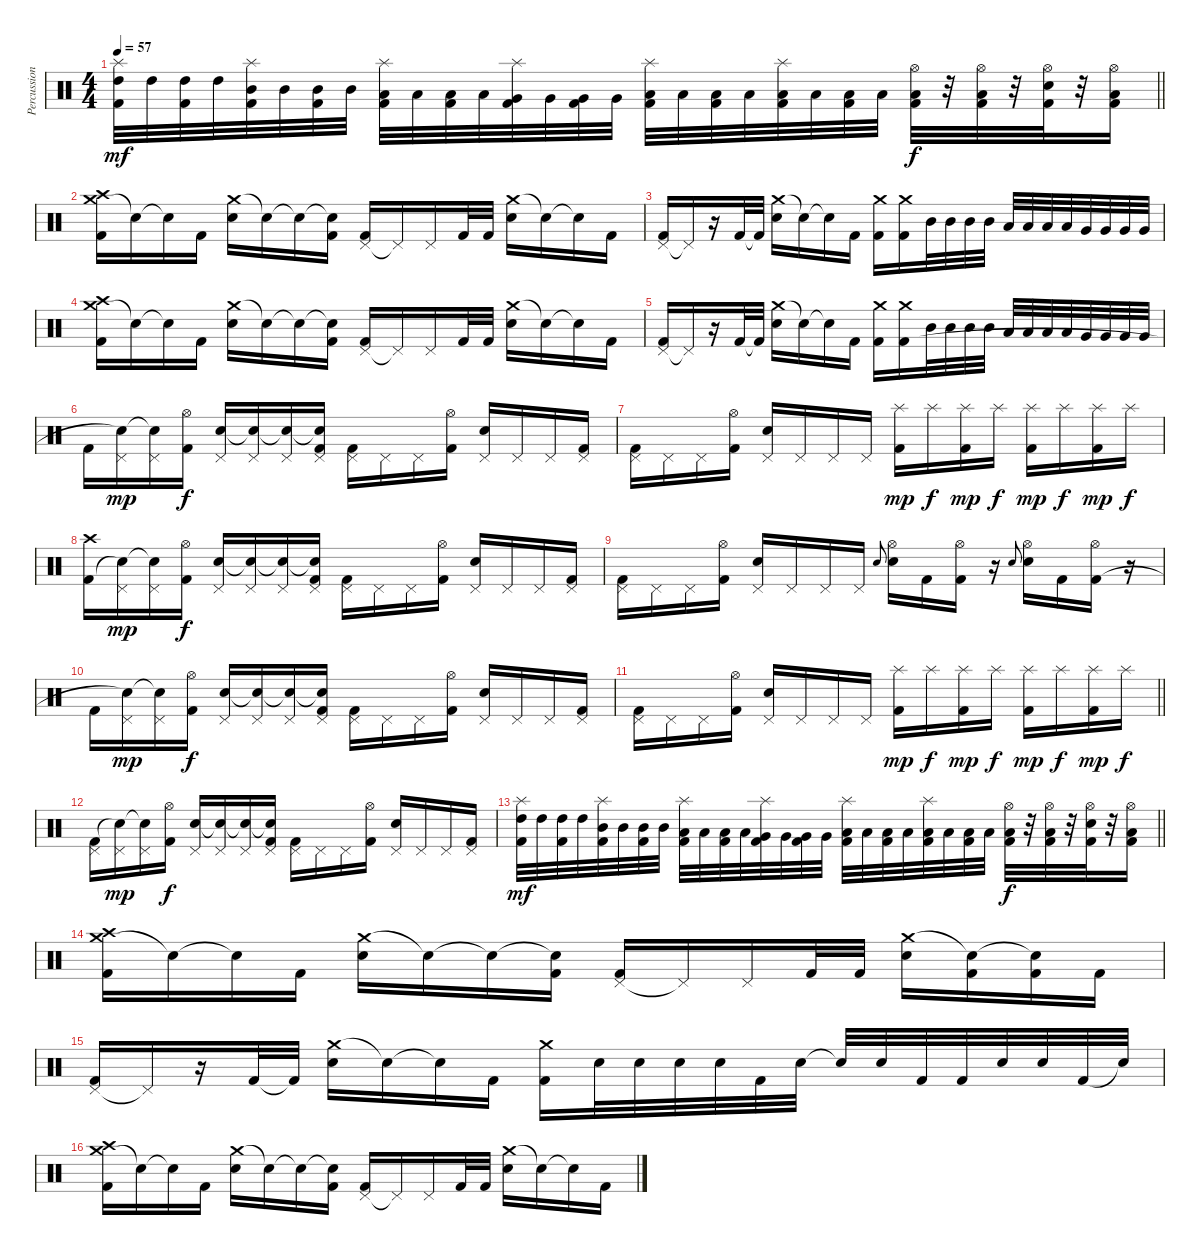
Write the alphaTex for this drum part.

\track ("Percussion" "Percussion") {instrument percussion}
\staff {score}
\articulation defaults
\ts (4 4)
\tempo 57
\clef neutral
\barLineRight lightlight
\ks c
("Splash (hit)" "High Tom (hit)" "Kick (hit) 2").32{dy mf} "High Tom (hit)".32 ("High Tom (hit)" "Kick (hit) 2").32 "High Tom (hit)".32 ("Splash (hit)" "Mid Tom (hit)" "Kick (hit) 2").32 "Mid Tom (hit)".32 ("Mid Tom (hit)" "Kick (hit) 2").32 "Mid Tom (hit)".32 ("Splash (hit)" "Low Tom (hit)" "Kick (hit) 2").32 "Low Tom (hit)".32 ("Low Tom (hit)" "Kick (hit) 2").32 "Low Tom (hit)".32 ("Splash (hit)" "Very Low Tom (hit)" "Kick (hit) 2").32 "Very Low Tom (hit)".32 ("Very Low Tom (hit)" "Kick (hit) 2").32 "Very Low Tom (hit)".32 ("Splash (hit)" "Low Floor Tom (hit)" "Kick (hit) 2").32 "Low Floor Tom (hit)".32 ("Low Floor Tom (hit)" "Kick (hit) 2").32 "Low Floor Tom (hit)".32 ("Splash (hit)" "Low Floor Tom (hit)" "Kick (hit) 2").32 "Low Floor Tom (hit)".32 ("Low Floor Tom (hit)" "Kick (hit) 2").32 "Low Floor Tom (hit)".32 ("Hi-Hat (open)" "Low Floor Tom (hit)" "Kick (hit) 2").32{dy f} r.32 ("Hi-Hat (open)" "Low Floor Tom (hit)" "Kick (hit) 2").32 r.32 ("Hi-Hat (open)" "Snare (hit) 2" "Kick (hit) 2").32 r.32 ("Hi-Hat (open)" "Low Floor Tom (hit)" "Kick (hit) 2").16 |
("Crash medium (hit)" "Crash high (hit)" "Kick (hit) 2").16 "Snare (hit)"{t}.16 "Snare (hit)"{t}.16 "Kick (hit) 2".16 ("Crash medium (hit)" "Snare (hit) 2").16 "Snare (hit)"{t}.16 "Snare (hit)"{t}.16 ("Snare (hit)"{t} "Kick (hit) 2").16 ("Pedal Hi-Hat (hit)" "Kick (hit) 2").16 "Pedal Hi-Hat (hit)"{t}.16 "Pedal Hi-Hat (hit)".16 "Kick (hit) 2".32 "Kick (hit) 2".32 ("Crash medium (hit)" "Snare (hit) 2").16 "Snare (hit)"{t}.16 "Snare (hit)"{t}.16 "Kick (hit) 2".16 |
("Pedal Hi-Hat (hit)" "Kick (hit) 2").16 "Pedal Hi-Hat (hit)"{t}.16 r.16 "Kick (hit) 2".32 "Kick (hit) 2"{t}.32 ("Crash medium (hit)" "Snare (hit) 2").16 "Snare (hit)"{t}.16 "Snare (hit)"{t}.16 "Kick (hit) 2".16 ("Crash medium (hit)" "Kick (hit) 2").16 ("Crash medium (hit)" "Kick (hit) 2").16 "Mid Tom (hit)".32 "Mid Tom (hit)".32 "Mid Tom (hit)".32 "Mid Tom (hit)".32 "Low Tom (hit)".32 "Low Tom (hit)".32 "Low Tom (hit)".32 "Low Tom (hit)".32 "Very Low Tom (hit)".32 "Very Low Tom (hit)".32 "Very Low Tom (hit)".32 "Very Low Tom (hit)".32 |
("Crash medium (hit)" "Crash high (hit)" "Kick (hit) 2").16 "Snare (hit)"{t}.16 "Snare (hit)"{t}.16 "Kick (hit) 2".16 ("Crash medium (hit)" "Snare (hit) 2").16 "Snare (hit)"{t}.16 "Snare (hit)"{t}.16 ("Snare (hit)"{t} "Kick (hit) 2").16 ("Pedal Hi-Hat (hit)" "Kick (hit) 2").16 "Pedal Hi-Hat (hit)"{t}.16 "Pedal Hi-Hat (hit)".16 "Kick (hit) 2".32 "Kick (hit) 2".32 ("Crash medium (hit)" "Snare (hit) 2").16 "Snare (hit)"{t}.16 "Snare (hit)"{t}.16 "Kick (hit) 2".16 |
("Pedal Hi-Hat (hit)" "Kick (hit) 2").16 "Pedal Hi-Hat (hit)"{t}.16 r.16 "Kick (hit) 2".32 "Kick (hit) 2"{t}.32 ("Crash medium (hit)" "Snare (hit) 2").16 "Snare (hit)"{t}.16 "Snare (hit)"{t}.16 "Kick (hit) 2".16 ("Crash medium (hit)" "Kick (hit) 2").16 ("Crash medium (hit)" "Kick (hit) 2").16 "Mid Tom (hit)".32 "Mid Tom (hit)".32 "Mid Tom (hit)".32 "Mid Tom (hit)".32 "Low Tom (hit)".32 "Low Tom (hit)".32 "Low Tom (hit)".32 "Low Tom (hit)".32 "Very Low Tom (hit)".32 "Very Low Tom (hit)".32 "Very Low Tom (hit)".32 "Very Low Tom (hit)".32 |
"Kick (hit) 2".16 ("Pedal Hi-Hat (hit)" "Snare (hit)"{t}).16{dy mp} ("Pedal Hi-Hat (hit)" "Snare (hit)"{t}).16 ("Hi-Hat (open)" "Kick (hit) 2").16{dy f} ("Pedal Hi-Hat (hit)" "Snare (hit) 2").16 ("Pedal Hi-Hat (hit)" "Snare (hit)"{t}).16 ("Pedal Hi-Hat (hit)" "Snare (hit)"{t}).16 ("Pedal Hi-Hat (hit)" "Snare (hit)"{t} "Kick (hit) 2").16 ("Pedal Hi-Hat (hit)" "Kick (hit) 2").16 "Pedal Hi-Hat (hit)".16 "Pedal Hi-Hat (hit)".16 ("Hi-Hat (open)" "Kick (hit) 2").16 ("Pedal Hi-Hat (hit)" "Snare (hit) 2").16 "Pedal Hi-Hat (hit)".16 "Pedal Hi-Hat (hit)".16 ("Pedal Hi-Hat (hit)" "Kick (hit) 2").16 |
("Pedal Hi-Hat (hit)" "Kick (hit) 2").16 "Pedal Hi-Hat (hit)".16 "Pedal Hi-Hat (hit)".16 ("Hi-Hat (open)" "Kick (hit) 2").16 ("Pedal Hi-Hat (hit)" "Snare (hit) 2").16 "Pedal Hi-Hat (hit)".16 "Pedal Hi-Hat (hit)".16 "Pedal Hi-Hat (hit)".16 ("Splash (hit)" "Kick (hit) 2").16{dy mp} "Splash (hit)".16{dy f} ("Splash (hit)" "Kick (hit) 2").16{dy mp} "Splash (hit)".16{dy f} ("Splash (hit)" "Kick (hit) 2").16{dy mp} "Splash (hit)".16{dy f} ("Splash (hit)" "Kick (hit) 2").16{dy mp} "Splash (hit)".16{dy f} |
("Crash high (hit)" "Kick (hit) 2").16 ("Pedal Hi-Hat (hit)" "Snare (hit)"{t}).16{dy mp} ("Pedal Hi-Hat (hit)" "Snare (hit)"{t}).16 ("Hi-Hat (open)" "Kick (hit) 2").16{dy f} ("Pedal Hi-Hat (hit)" "Snare (hit) 2").16 ("Pedal Hi-Hat (hit)" "Snare (hit)"{t}).16 ("Pedal Hi-Hat (hit)" "Snare (hit)"{t}).16 ("Pedal Hi-Hat (hit)" "Snare (hit)"{t} "Kick (hit) 2").16 ("Pedal Hi-Hat (hit)" "Kick (hit) 2").16 "Pedal Hi-Hat (hit)".16 "Pedal Hi-Hat (hit)".16 ("Hi-Hat (open)" "Kick (hit) 2").16 ("Pedal Hi-Hat (hit)" "Snare (hit) 2").16 "Pedal Hi-Hat (hit)".16 "Pedal Hi-Hat (hit)".16 ("Pedal Hi-Hat (hit)" "Kick (hit) 2").16 |
("Pedal Hi-Hat (hit)" "Kick (hit) 2").16 "Pedal Hi-Hat (hit)".16 "Pedal Hi-Hat (hit)".16 ("Hi-Hat (open)" "Kick (hit) 2").16 ("Pedal Hi-Hat (hit)" "Snare (hit) 2").16 "Pedal Hi-Hat (hit)".16 "Pedal Hi-Hat (hit)".16 "Pedal Hi-Hat (hit)".16 "Snare (hit) 2".8{gr onbeat} ("Hi-Hat (open)" "Snare (hit) 2").16 "Kick (hit) 2".16 ("Hi-Hat (open)" "Kick (hit) 2").16 r.16 "Snare (hit) 2".8{gr onbeat} ("Hi-Hat (open)" "Snare (hit) 2").16 "Kick (hit) 2".16 ("Hi-Hat (open)" "Kick (hit) 2").16 r.16 |
"Kick (hit) 2".16 ("Pedal Hi-Hat (hit)" "Snare (hit)"{t}).16{dy mp} ("Pedal Hi-Hat (hit)" "Snare (hit)"{t}).16 ("Hi-Hat (open)" "Kick (hit) 2").16{dy f} ("Pedal Hi-Hat (hit)" "Snare (hit) 2").16 ("Pedal Hi-Hat (hit)" "Snare (hit)"{t}).16 ("Pedal Hi-Hat (hit)" "Snare (hit)"{t}).16 ("Pedal Hi-Hat (hit)" "Snare (hit)"{t} "Kick (hit) 2").16 ("Pedal Hi-Hat (hit)" "Kick (hit) 2").16 "Pedal Hi-Hat (hit)".16 "Pedal Hi-Hat (hit)".16 ("Hi-Hat (open)" "Kick (hit) 2").16 ("Pedal Hi-Hat (hit)" "Snare (hit) 2").16 "Pedal Hi-Hat (hit)".16 "Pedal Hi-Hat (hit)".16 ("Pedal Hi-Hat (hit)" "Kick (hit) 2").16 |
\barLineRight lightlight
("Pedal Hi-Hat (hit)" "Kick (hit) 2").16 "Pedal Hi-Hat (hit)".16 "Pedal Hi-Hat (hit)".16 ("Hi-Hat (open)" "Kick (hit) 2").16 ("Pedal Hi-Hat (hit)" "Snare (hit) 2").16 "Pedal Hi-Hat (hit)".16 "Pedal Hi-Hat (hit)".16 "Pedal Hi-Hat (hit)".16 ("Splash (hit)" "Kick (hit) 2").16{dy mp} "Splash (hit)".16{dy f} ("Splash (hit)" "Kick (hit) 2").16{dy mp} "Splash (hit)".16{dy f} ("Splash (hit)" "Kick (hit) 2").16{dy mp} "Splash (hit)".16{dy f} ("Splash (hit)" "Kick (hit) 2").16{dy mp} "Splash (hit)".16{dy f} |
("Pedal Hi-Hat (hit)" "Kick (hit) 2").16 ("Pedal Hi-Hat (hit)" "Snare (hit)"{t}).16{dy mp} ("Pedal Hi-Hat (hit)" "Snare (hit)"{t}).16 ("Hi-Hat (open)" "Kick (hit) 2").16{dy f} ("Pedal Hi-Hat (hit)" "Snare (hit) 2").16 ("Pedal Hi-Hat (hit)" "Snare (hit)"{t}).16 ("Pedal Hi-Hat (hit)" "Snare (hit)"{t}).16 ("Pedal Hi-Hat (hit)" "Snare (hit)"{t} "Kick (hit) 2").16 ("Pedal Hi-Hat (hit)" "Kick (hit) 2").16 "Pedal Hi-Hat (hit)".16 "Pedal Hi-Hat (hit)".16 ("Hi-Hat (open)" "Kick (hit) 2").16 ("Pedal Hi-Hat (hit)" "Snare (hit) 2").16 "Pedal Hi-Hat (hit)".16 "Pedal Hi-Hat (hit)".16 ("Pedal Hi-Hat (hit)" "Kick (hit) 2").16 |
\barLineRight lightlight
("Splash (hit)" "High Tom (hit)" "Kick (hit) 2").32{dy mf} "High Tom (hit)".32 ("High Tom (hit)" "Kick (hit) 2").32 "High Tom (hit)".32 ("Splash (hit)" "Mid Tom (hit)" "Kick (hit) 2").32 "Mid Tom (hit)".32 ("Mid Tom (hit)" "Kick (hit) 2").32 "Mid Tom (hit)".32 ("Splash (hit)" "Low Tom (hit)" "Kick (hit) 2").32 "Low Tom (hit)".32 ("Low Tom (hit)" "Kick (hit) 2").32 "Low Tom (hit)".32 ("Splash (hit)" "Very Low Tom (hit)" "Kick (hit) 2").32 "Very Low Tom (hit)".32 ("Very Low Tom (hit)" "Kick (hit) 2").32 "Very Low Tom (hit)".32 ("Splash (hit)" "Low Floor Tom (hit)" "Kick (hit) 2").32 "Low Floor Tom (hit)".32 ("Low Floor Tom (hit)" "Kick (hit) 2").32 "Low Floor Tom (hit)".32 ("Splash (hit)" "Low Floor Tom (hit)" "Kick (hit) 2").32 "Low Floor Tom (hit)".32 ("Low Floor Tom (hit)" "Kick (hit) 2").32 "Low Floor Tom (hit)".32 ("Hi-Hat (open)" "Low Floor Tom (hit)" "Kick (hit) 2").32{dy f} r.32 ("Hi-Hat (open)" "Low Floor Tom (hit)" "Kick (hit) 2").32 r.32 ("Hi-Hat (open)" "Snare (hit) 2" "Kick (hit) 2").32 r.32 ("Hi-Hat (open)" "Low Floor Tom (hit)" "Kick (hit) 2").16 |
("Crash medium (hit)" "Crash high (hit)" "Kick (hit) 2").16 "Snare (hit)"{t}.16 "Snare (hit)"{t}.16 "Kick (hit) 2".16 ("Crash medium (hit)" "Snare (hit) 2").16 "Snare (hit)"{t}.16 "Snare (hit)"{t}.16 ("Snare (hit)"{t} "Kick (hit) 2").16 ("Pedal Hi-Hat (hit)" "Kick (hit) 2").16 "Pedal Hi-Hat (hit)"{t}.16 "Pedal Hi-Hat (hit)".16 "Kick (hit) 2".32 "Kick (hit) 2".32 ("Crash medium (hit)" "Snare (hit) 2").16 ("Snare (hit)"{t} "Kick (hit) 2").16 ("Snare (hit)"{t} "Kick (hit) 2").16 "Kick (hit) 2".16 |
("Pedal Hi-Hat (hit)" "Kick (hit) 2").16 "Pedal Hi-Hat (hit)"{t}.16 r.16 "Kick (hit) 2".32 "Kick (hit) 2"{t}.32 ("Crash medium (hit)" "Snare (hit) 2").16 "Snare (hit)"{t}.16 "Snare (hit)"{t}.16 "Kick (hit) 2".16 ("Crash medium (hit)" "Kick (hit) 2").16 "Snare (hit) 2".32 "Snare (hit) 2".32 "Snare (hit) 2".32 "Snare (hit) 2".32 "Kick (hit) 2".32 "Snare (hit) 2".32 "Snare (hit) 2"{t}.32 "Snare (hit) 2".32 "Kick (hit) 2".32 "Kick (hit) 2".32 "Snare (hit) 2".32 "Snare (hit) 2".32 "Kick (hit) 2".32 "Snare (hit)"{t}.32 |
("Crash medium (hit)" "Crash high (hit)" "Kick (hit) 2").16 "Snare (hit)"{t}.16 "Snare (hit)"{t}.16 "Kick (hit) 2".16 ("Crash medium (hit)" "Snare (hit) 2").16 "Snare (hit)"{t}.16 "Snare (hit)"{t}.16 ("Snare (hit)"{t} "Kick (hit) 2").16 ("Pedal Hi-Hat (hit)" "Kick (hit) 2").16 "Pedal Hi-Hat (hit)"{t}.16 "Pedal Hi-Hat (hit)".16 "Kick (hit) 2".32 "Kick (hit) 2".32 ("Crash medium (hit)" "Snare (hit) 2").16 "Snare (hit)"{t}.16 "Snare (hit)"{t}.16 "Kick (hit) 2".16
